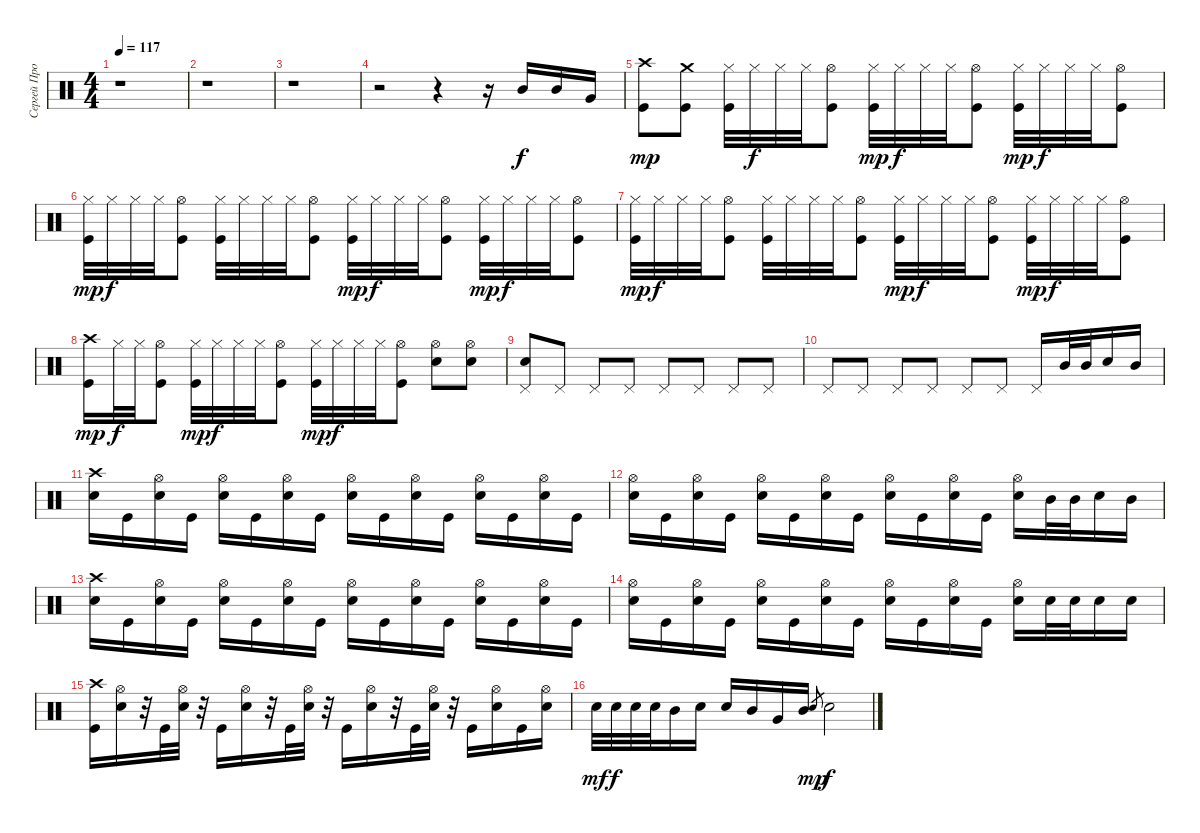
\track ("Сергей Прокофьев" "Сергей Про") {instrument percussion}
\staff {score}
\articulation defaults
\ts (4 4)
\tempo 117
\clef neutral
\ks c
r.1{dy f} |
r.1 |
r.1 |
r.2 r.4 r.16 "Mid Tom (hit)".16 "Mid Tom (hit)".16 "Very Low Tom (hit)".16 |
("Crash high (hit)" "Kick (hit)").8{dy mp} ("Crash medium (hit)" "Kick (hit)").8 ("Hi-Hat (closed)" "Kick (hit)").32 "Hi-Hat (closed)".32{dy f} "Hi-Hat (closed)".32 "Hi-Hat (closed)".32 ("Hi-Hat (open)" "Kick (hit)").8 ("Hi-Hat (closed)" "Kick (hit)").32{dy mp} "Hi-Hat (closed)".32{dy f} "Hi-Hat (closed)".32 "Hi-Hat (closed)".32 ("Hi-Hat (open)" "Kick (hit)").8 ("Hi-Hat (closed)" "Kick (hit)").32{dy mp} "Hi-Hat (closed)".32{dy f} "Hi-Hat (closed)".32 "Hi-Hat (closed)".32 ("Hi-Hat (open)" "Kick (hit)").8 |
("Hi-Hat (closed)" "Kick (hit)").32{dy mp} "Hi-Hat (closed)".32{dy f} "Hi-Hat (closed)".32 "Hi-Hat (closed)".32 ("Hi-Hat (open)" "Kick (hit)").8 ("Hi-Hat (closed)" "Kick (hit)").32 "Hi-Hat (closed)".32 "Hi-Hat (closed)".32 "Hi-Hat (closed)".32 ("Hi-Hat (open)" "Kick (hit)").8 ("Hi-Hat (closed)" "Kick (hit)").32{dy mp} "Hi-Hat (closed)".32{dy f} "Hi-Hat (closed)".32 "Hi-Hat (closed)".32 ("Hi-Hat (open)" "Kick (hit)").8 ("Hi-Hat (closed)" "Kick (hit)").32{dy mp} "Hi-Hat (closed)".32{dy f} "Hi-Hat (closed)".32 "Hi-Hat (closed)".32 ("Hi-Hat (open)" "Kick (hit)").8 |
("Hi-Hat (closed)" "Kick (hit)").32{dy mp} "Hi-Hat (closed)".32{dy f} "Hi-Hat (closed)".32 "Hi-Hat (closed)".32 ("Hi-Hat (open)" "Kick (hit)").8 ("Hi-Hat (closed)" "Kick (hit)").32 "Hi-Hat (closed)".32 "Hi-Hat (closed)".32 "Hi-Hat (closed)".32 ("Hi-Hat (open)" "Kick (hit)").8 ("Hi-Hat (closed)" "Kick (hit)").32{dy mp} "Hi-Hat (closed)".32{dy f} "Hi-Hat (closed)".32 "Hi-Hat (closed)".32 ("Hi-Hat (open)" "Kick (hit)").8 ("Hi-Hat (closed)" "Kick (hit)").32{dy mp} "Hi-Hat (closed)".32{dy f} "Hi-Hat (closed)".32 "Hi-Hat (closed)".32 ("Hi-Hat (open)" "Kick (hit)").8 |
("Crash high (hit)" "Kick (hit)").16{dy mp} "Hi-Hat (closed)".32{dy f} "Hi-Hat (closed)".32 ("Hi-Hat (open)" "Kick (hit)").8 ("Hi-Hat (closed)" "Kick (hit)").32{dy mp} "Hi-Hat (closed)".32{dy f} "Hi-Hat (closed)".32 "Hi-Hat (closed)".32 ("Hi-Hat (open)" "Kick (hit)").8 ("Hi-Hat (closed)" "Kick (hit)").32{dy mp} "Hi-Hat (closed)".32{dy f} "Hi-Hat (closed)".32 "Hi-Hat (closed)".32 ("Hi-Hat (open)" "Kick (hit)").8 ("Hi-Hat (open)" "Electric Snare (hit)").8 ("Hi-Hat (open)" "Electric Snare (hit)").8 |
("Pedal Hi-Hat (hit)" "Electric Snare (hit)").8 "Pedal Hi-Hat (hit)".8 "Pedal Hi-Hat (hit)".8 "Pedal Hi-Hat (hit)".8 "Pedal Hi-Hat (hit)".8 "Pedal Hi-Hat (hit)".8 "Pedal Hi-Hat (hit)".8 "Pedal Hi-Hat (hit)".8 |
"Pedal Hi-Hat (hit)".8 "Pedal Hi-Hat (hit)".8 "Pedal Hi-Hat (hit)".8 "Pedal Hi-Hat (hit)".8 "Pedal Hi-Hat (hit)".8 "Pedal Hi-Hat (hit)".8 "Pedal Hi-Hat (hit)".16 "Mid Tom (hit)".32 "Mid Tom (hit)".32 "Electric Snare (hit)".16 "Mid Tom (hit)".16 |
("Crash high (hit)" "Electric Snare (hit)").16 "Kick (hit)".16 ("Hi-Hat (open)" "Electric Snare (hit)").16 "Kick (hit)".16 ("Hi-Hat (open)" "Electric Snare (hit)").16 "Kick (hit)".16 ("Hi-Hat (open)" "Electric Snare (hit)").16 "Kick (hit)".16 ("Hi-Hat (open)" "Electric Snare (hit)").16 "Kick (hit)".16 ("Hi-Hat (open)" "Electric Snare (hit)").16 "Kick (hit)".16 ("Hi-Hat (open)" "Electric Snare (hit)").16 "Kick (hit)".16 ("Hi-Hat (open)" "Electric Snare (hit)").16 "Kick (hit)".16 |
("Hi-Hat (open)" "Electric Snare (hit)").16 "Kick (hit)".16 ("Hi-Hat (open)" "Electric Snare (hit)").16 "Kick (hit)".16 ("Hi-Hat (open)" "Electric Snare (hit)").16 "Kick (hit)".16 ("Hi-Hat (open)" "Electric Snare (hit)").16 "Kick (hit)".16 ("Hi-Hat (open)" "Electric Snare (hit)").16 "Kick (hit)".16 ("Hi-Hat (open)" "Electric Snare (hit)").16 "Kick (hit)".16 ("Hi-Hat (open)" "Electric Snare (hit)").16 "Mid Tom (hit)".32 "Mid Tom (hit)".32 "Electric Snare (hit)".16 "Mid Tom (hit)".16 |
("Crash high (hit)" "Electric Snare (hit)").16 "Kick (hit)".16 ("Hi-Hat (open)" "Electric Snare (hit)").16 "Kick (hit)".16 ("Hi-Hat (open)" "Electric Snare (hit)").16 "Kick (hit)".16 ("Hi-Hat (open)" "Electric Snare (hit)").16 "Kick (hit)".16 ("Hi-Hat (open)" "Electric Snare (hit)").16 "Kick (hit)".16 ("Hi-Hat (open)" "Electric Snare (hit)").16 "Kick (hit)".16 ("Hi-Hat (open)" "Electric Snare (hit)").16 "Kick (hit)".16 ("Hi-Hat (open)" "Electric Snare (hit)").16 "Kick (hit)".16 |
("Hi-Hat (open)" "Electric Snare (hit)").16 "Kick (hit)".16 ("Hi-Hat (open)" "Electric Snare (hit)").16 "Kick (hit)".16 ("Hi-Hat (open)" "Electric Snare (hit)").16 "Kick (hit)".16 ("Hi-Hat (open)" "Electric Snare (hit)").16 "Kick (hit)".16 ("Hi-Hat (open)" "Electric Snare (hit)").16 "Kick (hit)".16 ("Hi-Hat (open)" "Electric Snare (hit)").16 "Kick (hit)".16 ("Hi-Hat (open)" "Electric Snare (hit)").16 "Electric Snare (hit)".32 "Electric Snare (hit)".32 "Electric Snare (hit)".16 "Electric Snare (hit)".16 |
("Crash high (hit)" "Kick (hit)").16 ("Hi-Hat (open)" "Electric Snare (hit)").16 r.32 "Kick (hit)".32 ("Hi-Hat (open)" "Electric Snare (hit)").32 r.32 "Kick (hit)".16 ("Hi-Hat (open)" "Electric Snare (hit)").16 r.32 "Kick (hit)".32 ("Hi-Hat (open)" "Electric Snare (hit)").32 r.32 "Kick (hit)".16 ("Hi-Hat (open)" "Electric Snare (hit)").16 r.32 "Kick (hit)".32 ("Hi-Hat (open)" "Electric Snare (hit)").32 r.32 "Kick (hit)".16 ("Hi-Hat (open)" "Electric Snare (hit)").16 "Kick (hit)".16 ("Hi-Hat (open)" "Electric Snare (hit)").16 |
"Electric Snare (hit)".32{dy mf} "Electric Snare (hit)".32{dy f} "Electric Snare (hit)".32 "Electric Snare (hit)".32 "Mid Tom (hit)".16 "Electric Snare (hit)".16 "Electric Snare (hit)".16 "Mid Tom (hit)".16 "Very Low Tom (hit)".16 "Mid Tom (hit)".16 "Electric Snare (hit)".8{gr dy mp} "Electric Snare (hit)".2{dy f}
